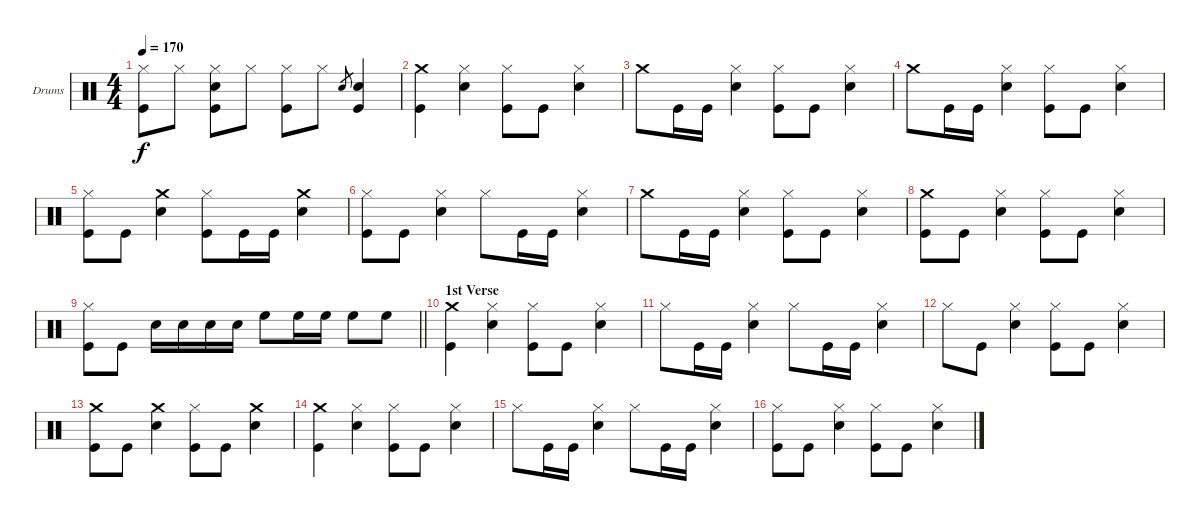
\bracketExtendMode groupsimilarinstruments
\firstSystemTrackNameOrientation horizontal
\otherSystemsTrackNameOrientation horizontal
\track ("Drumkit" "Drums") {instrument percussion}
\staff {score}
\articulation defaults
\ts (4 4)
\tempo 170
\clef neutral
\ks c
("Hi-Hat (closed)" "Kick (hit)").8{dy f} "Hi-Hat (closed)".8 ("Hi-Hat (closed)" "Snare (hit) 2" "Kick (hit)").8 "Hi-Hat (closed)".8 ("Hi-Hat (closed)" "Kick (hit)").8 "Hi-Hat (closed)".8 "Snare (hit) 2".8{gr} ("Snare (hit) 2" "Kick (hit)").4 |
("Crash medium (hit)" "Kick (hit)").4 ("Hi-Hat (closed)" "Snare (hit) 2").4 ("Hi-Hat (closed)" "Kick (hit)").8 "Kick (hit)".8 ("Hi-Hat (closed)" "Snare (hit) 2").4 |
"Crash medium (hit)".8 "Kick (hit)".16 "Kick (hit)".16 ("Hi-Hat (closed)" "Snare (hit) 2").4 ("Hi-Hat (closed)" "Kick (hit)").8 "Kick (hit)".8 ("Hi-Hat (closed)" "Snare (hit) 2").4 |
"Crash medium (hit)".8 "Kick (hit)".16 "Kick (hit)".16 ("Hi-Hat (closed)" "Snare (hit) 2").4 ("Hi-Hat (closed)" "Kick (hit)").8 "Kick (hit)".8 ("Hi-Hat (closed)" "Snare (hit) 2").4 |
("Hi-Hat (closed)" "Kick (hit)").8 "Kick (hit)".8 ("Crash medium (hit)" "Snare (hit) 2").4 ("Hi-Hat (closed)" "Kick (hit)").8 "Kick (hit)".16 "Kick (hit)".16 ("Crash medium (hit)" "Snare (hit) 2").4 |
("Hi-Hat (closed)" "Kick (hit)").8 "Kick (hit)".8 ("Hi-Hat (closed)" "Snare (hit) 2").4 "Hi-Hat (closed)".8 "Kick (hit)".16 "Kick (hit)".16 ("Hi-Hat (closed)" "Snare (hit) 2").4 |
"Crash medium (hit)".8 "Kick (hit)".16 "Kick (hit)".16 ("Hi-Hat (closed)" "Snare (hit) 2").4 ("Hi-Hat (closed)" "Kick (hit)").8 "Kick (hit)".8 ("Hi-Hat (closed)" "Snare (hit) 2").4 |
("Crash medium (hit)" "Kick (hit)").8 "Kick (hit)".8 ("Hi-Hat (closed)" "Snare (hit) 2").4 ("Hi-Hat (closed)" "Kick (hit)").8 "Kick (hit)".8 ("Hi-Hat (closed)" "Snare (hit) 2").4 |
\barLineRight lightlight
("Hi-Hat (closed)" "Kick (hit)").8 "Kick (hit)".8 "Snare (hit) 2".16 "Snare (hit) 2".16 "Snare (hit) 2".16 "Snare (hit) 2".16 "High Floor Tom (hit)".8 "High Floor Tom (hit)".16 "High Floor Tom (hit)".16 "High Floor Tom (hit)".8 "High Floor Tom (hit)".8 |
\section ("" "1st Verse")
("Crash medium (hit)" "Kick (hit)").4 ("Hi-Hat (closed)" "Snare (hit) 2").4 ("Hi-Hat (closed)" "Kick (hit)").8 "Kick (hit)".8 ("Hi-Hat (closed)" "Snare (hit) 2").4 |
"Hi-Hat (closed)".8 "Kick (hit)".16 "Kick (hit)".16 ("Hi-Hat (closed)" "Snare (hit) 2").4 "Hi-Hat (closed)".8 "Kick (hit)".16 "Kick (hit)".16 ("Hi-Hat (closed)" "Snare (hit) 2").4 |
"Hi-Hat (closed)".8 "Kick (hit)".8 ("Hi-Hat (closed)" "Snare (hit) 2").4 ("Hi-Hat (closed)" "Kick (hit)").8 "Kick (hit)".8 ("Hi-Hat (closed)" "Snare (hit) 2").4 |
("Crash medium (hit)" "Kick (hit)").8 "Kick (hit)".8 ("Crash medium (hit)" "Snare (hit) 2").4 ("Hi-Hat (closed)" "Kick (hit)").8 "Kick (hit)".8 ("Crash medium (hit)" "Snare (hit) 2").4 |
("Crash medium (hit)" "Kick (hit)").4 ("Hi-Hat (closed)" "Snare (hit) 2").4 ("Hi-Hat (closed)" "Kick (hit)").8 "Kick (hit)".8 ("Hi-Hat (closed)" "Snare (hit) 2").4 |
"Hi-Hat (closed)".8 "Kick (hit)".16 "Kick (hit)".16 ("Hi-Hat (closed)" "Snare (hit) 2").4 "Hi-Hat (closed)".8 "Kick (hit)".16 "Kick (hit)".16 ("Hi-Hat (closed)" "Snare (hit) 2").4 |
("Hi-Hat (closed)" "Kick (hit)").8 "Kick (hit)".8 ("Hi-Hat (closed)" "Snare (hit) 2").4 ("Hi-Hat (closed)" "Kick (hit)").8 "Kick (hit)".8 ("Hi-Hat (closed)" "Snare (hit) 2").4
